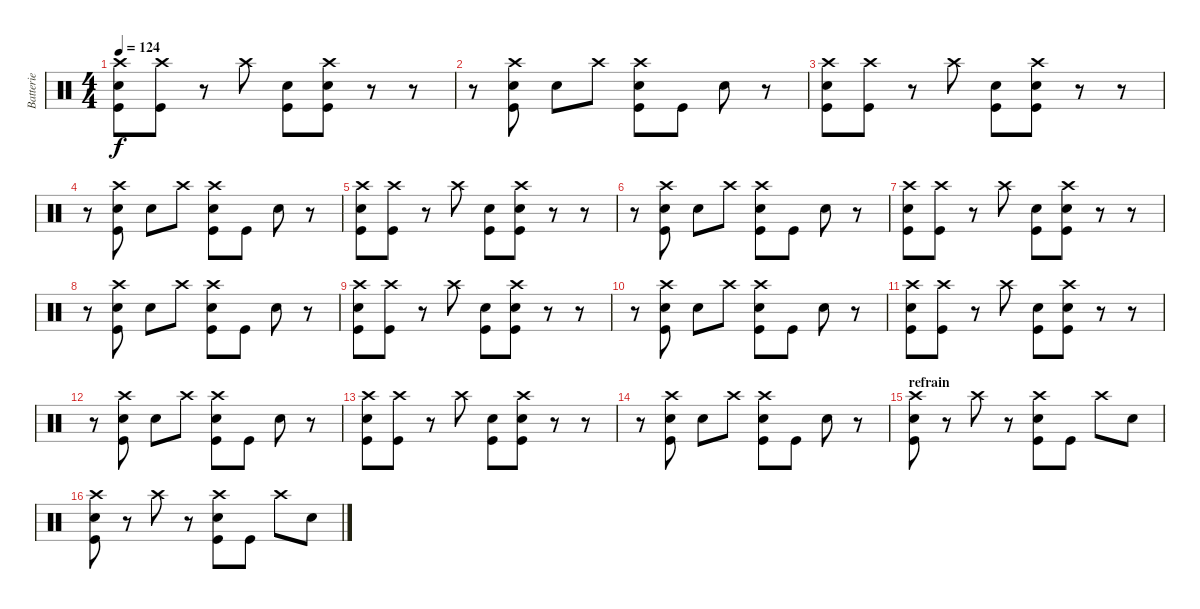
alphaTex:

\track ("Batterie" "Batterie") {instrument percussion}
\staff {score}
\articulation defaults
\ts (4 4)
\tempo 124
\clef neutral
\ks c
("Crash high (hit)" "Snare (hit) 2" "Kick (hit)").8{dy f} ("Crash high (hit)" "Kick (hit)").8 r.8 "Crash high (hit)".8 ("Snare (hit) 2" "Kick (hit)").8 ("Crash high (hit)" "Snare (hit) 2" "Kick (hit)").8 r.8 r.8 |
r.8 ("Crash high (hit)" "Snare (hit) 2" "Kick (hit)").8 "Snare (hit) 2".8 "Crash high (hit)".8 ("Crash high (hit)" "Snare (hit) 2" "Kick (hit)").8 "Kick (hit)".8 "Snare (hit) 2".8 r.8 |
("Crash high (hit)" "Snare (hit) 2" "Kick (hit)").8 ("Crash high (hit)" "Kick (hit)").8 r.8 "Crash high (hit)".8 ("Snare (hit) 2" "Kick (hit)").8 ("Crash high (hit)" "Snare (hit) 2" "Kick (hit)").8 r.8 r.8 |
r.8 ("Crash high (hit)" "Snare (hit) 2" "Kick (hit)").8 "Snare (hit) 2".8 "Crash high (hit)".8 ("Crash high (hit)" "Snare (hit) 2" "Kick (hit)").8 "Kick (hit)".8 "Snare (hit) 2".8 r.8 |
("Crash high (hit)" "Snare (hit) 2" "Kick (hit)").8 ("Crash high (hit)" "Kick (hit)").8 r.8 "Crash high (hit)".8 ("Snare (hit) 2" "Kick (hit)").8 ("Crash high (hit)" "Snare (hit) 2" "Kick (hit)").8 r.8 r.8 |
r.8 ("Crash high (hit)" "Snare (hit) 2" "Kick (hit)").8 "Snare (hit) 2".8 "Crash high (hit)".8 ("Crash high (hit)" "Snare (hit) 2" "Kick (hit)").8 "Kick (hit)".8 "Snare (hit) 2".8 r.8 |
("Crash high (hit)" "Snare (hit) 2" "Kick (hit)").8 ("Crash high (hit)" "Kick (hit)").8 r.8 "Crash high (hit)".8 ("Snare (hit) 2" "Kick (hit)").8 ("Crash high (hit)" "Snare (hit) 2" "Kick (hit)").8 r.8 r.8 |
r.8 ("Crash high (hit)" "Snare (hit) 2" "Kick (hit)").8 "Snare (hit) 2".8 "Crash high (hit)".8 ("Crash high (hit)" "Snare (hit) 2" "Kick (hit)").8 "Kick (hit)".8 "Snare (hit) 2".8 r.8 |
("Crash high (hit)" "Snare (hit) 2" "Kick (hit)").8 ("Crash high (hit)" "Kick (hit)").8 r.8 "Crash high (hit)".8 ("Snare (hit) 2" "Kick (hit)").8 ("Crash high (hit)" "Snare (hit) 2" "Kick (hit)").8 r.8 r.8 |
r.8 ("Crash high (hit)" "Snare (hit) 2" "Kick (hit)").8 "Snare (hit) 2".8 "Crash high (hit)".8 ("Crash high (hit)" "Snare (hit) 2" "Kick (hit)").8 "Kick (hit)".8 "Snare (hit) 2".8 r.8 |
("Crash high (hit)" "Snare (hit) 2" "Kick (hit)").8 ("Crash high (hit)" "Kick (hit)").8 r.8 "Crash high (hit)".8 ("Snare (hit) 2" "Kick (hit)").8 ("Crash high (hit)" "Snare (hit) 2" "Kick (hit)").8 r.8 r.8 |
r.8 ("Crash high (hit)" "Snare (hit) 2" "Kick (hit)").8 "Snare (hit) 2".8 "Crash high (hit)".8 ("Crash high (hit)" "Snare (hit) 2" "Kick (hit)").8 "Kick (hit)".8 "Snare (hit) 2".8 r.8 |
("Crash high (hit)" "Snare (hit) 2" "Kick (hit)").8 ("Crash high (hit)" "Kick (hit)").8 r.8 "Crash high (hit)".8 ("Snare (hit) 2" "Kick (hit)").8 ("Crash high (hit)" "Snare (hit) 2" "Kick (hit)").8 r.8 r.8 |
r.8 ("Crash high (hit)" "Snare (hit) 2" "Kick (hit)").8 "Snare (hit) 2".8 "Crash high (hit)".8 ("Crash high (hit)" "Snare (hit) 2" "Kick (hit)").8 "Kick (hit)".8 "Snare (hit) 2".8 r.8 |
\section ("" "refrain")
("Crash high (hit)" "Snare (hit) 2" "Kick (hit)").8 r.8 "Crash high (hit)".8 r.8 ("Crash high (hit)" "Snare (hit) 2" "Kick (hit)").8 "Kick (hit)".8 "Crash high (hit)".8 "Snare (hit) 2".8 |
("Crash high (hit)" "Snare (hit) 2" "Kick (hit)").8 r.8 "Crash high (hit)".8 r.8 ("Crash high (hit)" "Snare (hit) 2" "Kick (hit)").8 "Kick (hit)".8 "Crash high (hit)".8 "Snare (hit) 2".8
